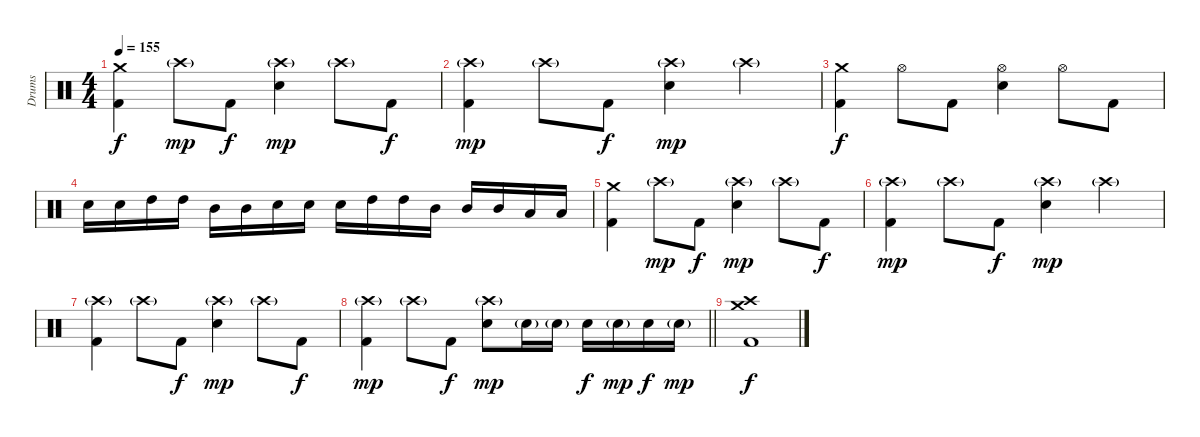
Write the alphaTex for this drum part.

\track ("Drums" "Drums") {instrument percussion}
\staff {score}
\articulation defaults
\ts (4 4)
\tempo 155
\clef neutral
\ks c
("Crash medium (hit)" "Kick (hit) 2").4{dy f} "Crash high (hit)"{g}.8{dy mp} "Kick (hit) 2".8{dy f} ("Crash high (hit)"{g} "Electric Snare (hit)").4{dy mp} "Crash high (hit)"{g}.8 "Kick (hit) 2".8{dy f} |
("Crash high (hit)"{g} "Kick (hit) 2").4{dy mp} "Crash high (hit)"{g}.8 "Kick (hit) 2".8{dy f} ("Crash high (hit)"{g} "Electric Snare (hit)").4{dy mp} "Crash high (hit)"{g}.4 |
("Crash medium (hit)" "Kick (hit) 2").4{dy f} "Hi-Hat (open)".8 "Kick (hit) 2".8 ("Hi-Hat (open)" "Electric Snare (hit)").4 "Hi-Hat (open)".8 "Kick (hit) 2".8 |
"Electric Snare (hit)".16 "Electric Snare (hit)".16 "High Tom (hit)".16 "High Tom (hit)".16 "Mid Tom (hit)".16 "Mid Tom (hit)".16 "Electric Snare (hit)".16 "Electric Snare (hit)".16 "Electric Snare (hit)".16 "High Tom (hit)".16 "High Tom (hit)".16 "Mid Tom (hit)".16 "Mid Tom (hit)".16 "Mid Tom (hit)".16 "Low Tom (hit)".16 "Low Tom (hit)".16 |
("Crash medium (hit)" "Kick (hit) 2").4 "Crash high (hit)"{g}.8{dy mp} "Kick (hit) 2".8{dy f} ("Crash high (hit)"{g} "Electric Snare (hit)").4{dy mp} "Crash high (hit)"{g}.8 "Kick (hit) 2".8{dy f} |
("Crash high (hit)"{g} "Kick (hit) 2").4{dy mp} "Crash high (hit)"{g}.8 "Kick (hit) 2".8{dy f} ("Crash high (hit)"{g} "Electric Snare (hit)").4{dy mp} "Crash high (hit)"{g}.4 |
("Crash high (hit)"{g} "Kick (hit) 2").4 "Crash high (hit)"{g}.8 "Kick (hit) 2".8{dy f} ("Crash high (hit)"{g} "Electric Snare (hit)").4{dy mp} "Crash high (hit)"{g}.8 "Kick (hit) 2".8{dy f} |
\barLineRight lightlight
("Crash high (hit)"{g} "Kick (hit) 2").4{dy mp} "Crash high (hit)"{g}.8 "Kick (hit) 2".8{dy f} ("Crash high (hit)"{g} "Electric Snare (hit)").8{dy mp} "Electric Snare (hit)"{g}.16 "Electric Snare (hit)"{g}.16 "Electric Snare (hit)".16{dy f} "Electric Snare (hit)"{g}.16{dy mp} "Electric Snare (hit)".16{dy f} "Electric Snare (hit)"{g}.16{dy mp} |
("Crash medium (hit)" "Crash high (hit)" "Kick (hit) 2").1{dy f}
